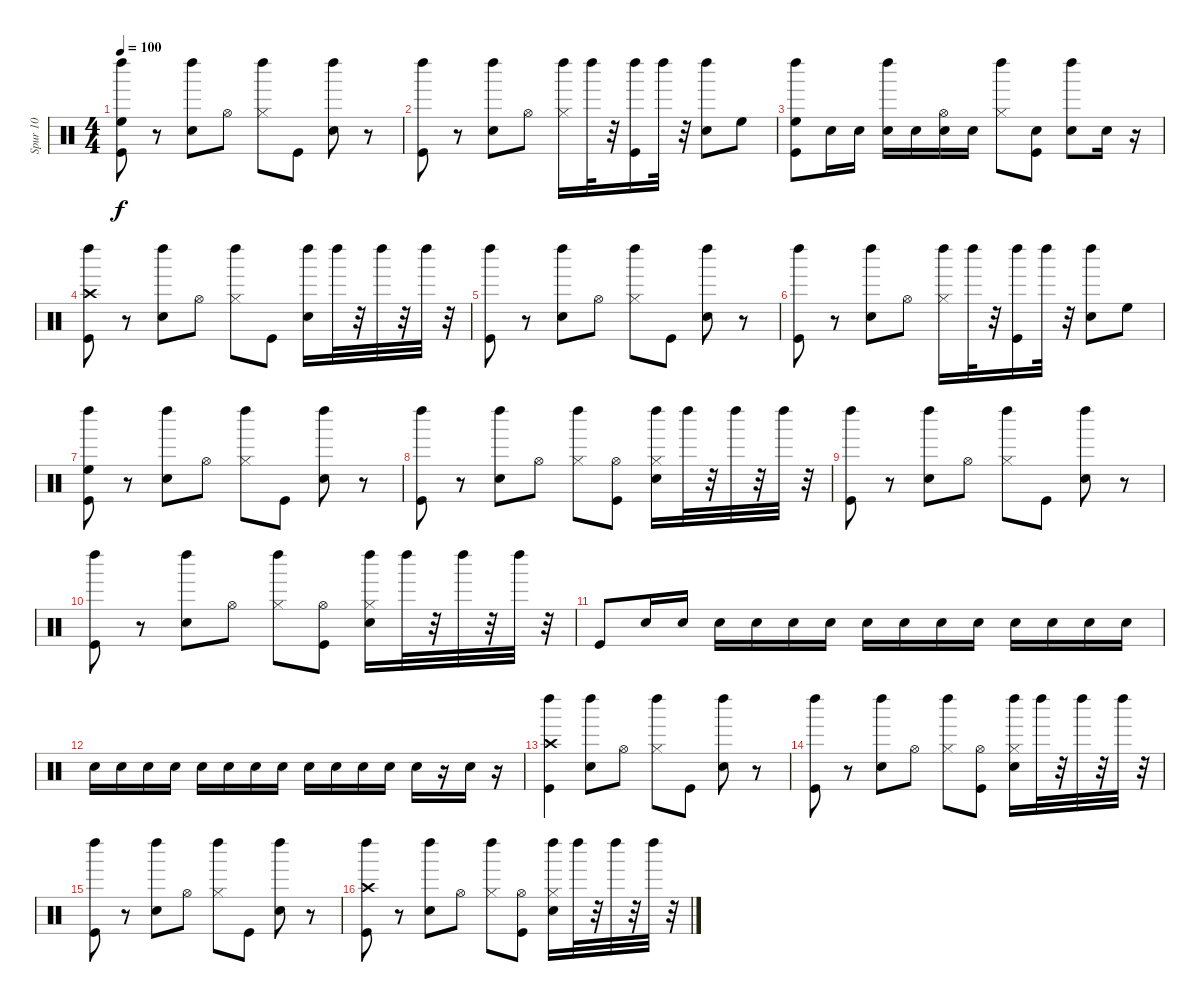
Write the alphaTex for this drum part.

\track ("Spur 10" "Spur 10") {instrument percussion}
\staff {score}
\articulation defaults
\ts (4 4)
\tempo 100
\clef neutral
\ks c
("High Floor Tom (hit)" "Kick (hit)" "Left Maraca (hit)").8{dy f} r.8 ("Snare (hit) 2" "Left Maraca (hit)").8 "Hi-Hat (open)".8 ("Hi-Hat (closed)" "Left Maraca (hit)").8 "Kick (hit)".8 ("Snare (hit) 2" "Left Maraca (hit)").8 r.8 |
("Kick (hit)" "Left Maraca (hit)").8 r.8 ("Snare (hit) 2" "Left Maraca (hit)").8 "Hi-Hat (open)".8 ("Hi-Hat (closed)" "Left Maraca (hit)").16 "Left Maraca (hit)".32 r.32 ("Kick (hit)" "Left Maraca (hit)").16 "Left Maraca (hit)".32 r.32 ("Snare (hit) 2" "Left Maraca (hit)").8 "High Floor Tom (hit)".8 |
("High Floor Tom (hit)" "Kick (hit)" "Left Maraca (hit)").8 "Electric Snare (hit)".16 "Electric Snare (hit)".16 ("Electric Snare (hit)" "Left Maraca (hit)").16 "Electric Snare (hit)".16 ("Electric Snare (hit)" "Hi-Hat (open)").16 "Electric Snare (hit)".16 ("Hi-Hat (closed)" "Left Maraca (hit)").8 ("Electric Snare (hit)" "Kick (hit)").8 ("Snare (hit) 2" "Left Maraca (hit)").8 "Electric Snare (hit)".16 r.16 |
("Crash high (hit)" "Kick (hit)" "Left Maraca (hit)").8 r.8 ("Snare (hit) 2" "Left Maraca (hit)").8 "Hi-Hat (open)".8 ("Hi-Hat (closed)" "Left Maraca (hit)").8 "Kick (hit)".8 ("Snare (hit) 2" "Left Maraca (hit)").16 "Left Maraca (hit)".32 r.32 "Left Maraca (hit)".32 r.32 "Left Maraca (hit)".32 r.32 |
("Kick (hit)" "Left Maraca (hit)").8 r.8 ("Snare (hit) 2" "Left Maraca (hit)").8 "Hi-Hat (open)".8 ("Hi-Hat (closed)" "Left Maraca (hit)").8 "Kick (hit)".8 ("Snare (hit) 2" "Left Maraca (hit)").8 r.8 |
("Kick (hit)" "Left Maraca (hit)").8 r.8 ("Snare (hit) 2" "Left Maraca (hit)").8 "Hi-Hat (open)".8 ("Hi-Hat (closed)" "Left Maraca (hit)").16 "Left Maraca (hit)".32 r.32 ("Kick (hit)" "Left Maraca (hit)").16 "Left Maraca (hit)".32 r.32 ("Snare (hit) 2" "Left Maraca (hit)").8 "High Floor Tom (hit)".8 |
("High Floor Tom (hit)" "Kick (hit)" "Left Maraca (hit)").8 r.8 ("Snare (hit) 2" "Left Maraca (hit)").8 "Hi-Hat (open)".8 ("Hi-Hat (closed)" "Left Maraca (hit)").8 "Kick (hit)".8 ("Snare (hit) 2" "Left Maraca (hit)").8 r.8 |
("Kick (hit)" "Left Maraca (hit)").8 r.8 ("Snare (hit) 2" "Left Maraca (hit)").8 "Hi-Hat (open)".8 ("Hi-Hat (closed)" "Left Maraca (hit)").8 ("Hi-Hat (open)" "Kick (hit)").8 ("Hi-Hat (closed)" "Snare (hit) 2" "Left Maraca (hit)").16 "Left Maraca (hit)".32 r.32 "Left Maraca (hit)".32 r.32 "Left Maraca (hit)".32 r.32 |
("Kick (hit)" "Left Maraca (hit)").8 r.8 ("Snare (hit) 2" "Left Maraca (hit)").8 "Hi-Hat (open)".8 ("Hi-Hat (closed)" "Left Maraca (hit)").8 "Kick (hit)".8 ("Snare (hit) 2" "Left Maraca (hit)").8 r.8 |
("Kick (hit)" "Left Maraca (hit)").8 r.8 ("Snare (hit) 2" "Left Maraca (hit)").8 "Hi-Hat (open)".8 ("Hi-Hat (closed)" "Left Maraca (hit)").8 ("Hi-Hat (open)" "Kick (hit)").8 ("Hi-Hat (closed)" "Snare (hit) 2" "Left Maraca (hit)").16 "Left Maraca (hit)".32 r.32 "Left Maraca (hit)".32 r.32 "Left Maraca (hit)".32 r.32 |
"Kick (hit)".8 "Electric Snare (hit)".16 "Electric Snare (hit)".16 "Electric Snare (hit)".16 "Electric Snare (hit)".16 "Electric Snare (hit)".16 "Electric Snare (hit)".16 "Electric Snare (hit)".16 "Electric Snare (hit)".16 "Electric Snare (hit)".16 "Electric Snare (hit)".16 "Electric Snare (hit)".16 "Electric Snare (hit)".16 "Electric Snare (hit)".16 "Electric Snare (hit)".16 |
"Electric Snare (hit)".16 "Electric Snare (hit)".16 "Electric Snare (hit)".16 "Electric Snare (hit)".16 "Electric Snare (hit)".16 "Electric Snare (hit)".16 "Electric Snare (hit)".16 "Electric Snare (hit)".16 "Electric Snare (hit)".16 "Electric Snare (hit)".16 "Electric Snare (hit)".16 "Electric Snare (hit)".16 "Electric Snare (hit)".16 r.16 "Electric Snare (hit)".16 r.16 |
("Crash high (hit)" "Kick (hit)" "Left Maraca (hit)").4 ("Snare (hit) 2" "Left Maraca (hit)").8 "Hi-Hat (open)".8 ("Hi-Hat (closed)" "Left Maraca (hit)").8 "Kick (hit)".8 ("Snare (hit) 2" "Left Maraca (hit)").8 r.8 |
("Kick (hit)" "Left Maraca (hit)").8 r.8 ("Snare (hit) 2" "Left Maraca (hit)").8 "Hi-Hat (open)".8 ("Hi-Hat (closed)" "Left Maraca (hit)").8 ("Hi-Hat (open)" "Kick (hit)").8 ("Hi-Hat (closed)" "Snare (hit) 2" "Left Maraca (hit)").16 "Left Maraca (hit)".32 r.32 "Left Maraca (hit)".32 r.32 "Left Maraca (hit)".32 r.32 |
("Kick (hit)" "Left Maraca (hit)").8 r.8 ("Snare (hit) 2" "Left Maraca (hit)").8 "Hi-Hat (open)".8 ("Hi-Hat (closed)" "Left Maraca (hit)").8 "Kick (hit)".8 ("Snare (hit) 2" "Left Maraca (hit)").8 r.8 |
("Crash high (hit)" "Kick (hit)" "Left Maraca (hit)").8 r.8 ("Snare (hit) 2" "Left Maraca (hit)").8 "Hi-Hat (open)".8 ("Hi-Hat (closed)" "Left Maraca (hit)").8 ("Hi-Hat (open)" "Kick (hit)").8 ("Hi-Hat (closed)" "Snare (hit) 2" "Left Maraca (hit)").16 "Left Maraca (hit)".32 r.32 "Left Maraca (hit)".32 r.32 "Left Maraca (hit)".32 r.32
